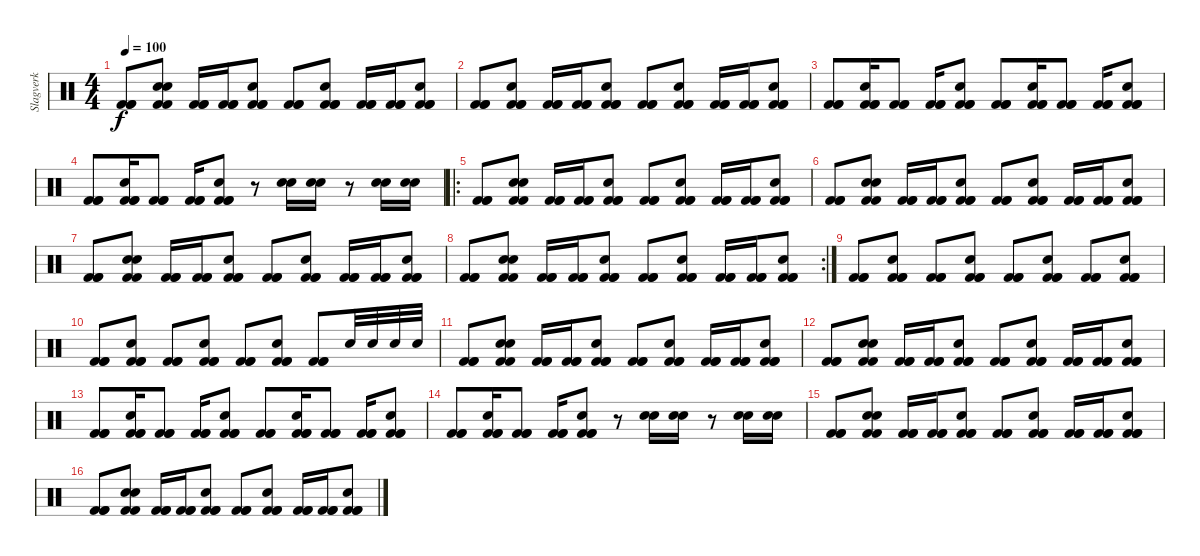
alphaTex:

\track ("Slagverk" "Slagverk") {instrument percussion}
\staff {score}
\articulation defaults
\ts (4 4)
\tempo 100
\clef neutral
\ks c
("Kick (hit) 2" "Kick (hit) 2" "Kick (hit) 2").8{dy f} ("Snare (hit) 2" "Kick (hit) 2" "Kick (hit) 2" "Snare (hit)").8 ("Kick (hit) 2" "Kick (hit) 2" "Kick (hit) 2").16 ("Kick (hit) 2" "Kick (hit) 2" "Kick (hit) 2").16 ("Snare (hit) 2" "Kick (hit) 2" "Kick (hit) 2" "Kick (hit) 2").8 ("Kick (hit) 2" "Kick (hit) 2" "Kick (hit) 2").8 ("Snare (hit) 2" "Kick (hit) 2" "Kick (hit) 2" "Kick (hit) 2").8 ("Kick (hit) 2" "Kick (hit) 2" "Kick (hit) 2").16 ("Kick (hit) 2" "Kick (hit) 2" "Kick (hit) 2").16 ("Snare (hit) 2" "Kick (hit) 2" "Kick (hit) 2" "Kick (hit) 2").8 |
("Kick (hit) 2" "Kick (hit) 2" "Kick (hit) 2").8 ("Snare (hit) 2" "Kick (hit) 2" "Kick (hit) 2" "Kick (hit) 2").8 ("Kick (hit) 2" "Kick (hit) 2" "Kick (hit) 2").16 ("Kick (hit) 2" "Kick (hit) 2" "Kick (hit) 2").16 ("Snare (hit) 2" "Kick (hit) 2" "Kick (hit) 2" "Kick (hit) 2").8 ("Kick (hit) 2" "Kick (hit) 2" "Kick (hit) 2").8 ("Snare (hit) 2" "Kick (hit) 2" "Kick (hit) 2" "Kick (hit) 2").8 ("Kick (hit) 2" "Kick (hit) 2" "Kick (hit) 2").16 ("Kick (hit) 2" "Kick (hit) 2" "Kick (hit) 2").16 ("Snare (hit) 2" "Kick (hit) 2" "Kick (hit) 2" "Kick (hit) 2").8 |
("Kick (hit) 2" "Kick (hit) 2" "Kick (hit) 2").8 ("Snare (hit) 2" "Kick (hit) 2" "Kick (hit) 2" "Kick (hit) 2").16 ("Kick (hit) 2" "Kick (hit) 2" "Kick (hit) 2").8 ("Kick (hit) 2" "Kick (hit) 2" "Kick (hit) 2").16 ("Snare (hit) 2" "Kick (hit) 2" "Kick (hit) 2" "Kick (hit) 2").8 ("Kick (hit) 2" "Kick (hit) 2" "Kick (hit) 2").8 ("Snare (hit) 2" "Kick (hit) 2" "Kick (hit) 2" "Kick (hit) 2").16 ("Kick (hit) 2" "Kick (hit) 2" "Kick (hit) 2").8 ("Kick (hit) 2" "Kick (hit) 2" "Kick (hit) 2").16 ("Snare (hit) 2" "Kick (hit) 2" "Kick (hit) 2" "Kick (hit) 2").8 |
("Kick (hit) 2" "Kick (hit) 2" "Kick (hit) 2").8 ("Snare (hit) 2" "Kick (hit) 2" "Kick (hit) 2" "Kick (hit) 2").16 ("Kick (hit) 2" "Kick (hit) 2" "Kick (hit) 2").8 ("Kick (hit) 2" "Kick (hit) 2" "Kick (hit) 2").16 ("Snare (hit) 2" "Kick (hit) 2" "Kick (hit) 2" "Kick (hit) 2").8 r.8 ("Hand Clap (hit)" "Hand Clap (hit)").16 ("Hand Clap (hit)" "Hand Clap (hit)").16 r.8 ("Hand Clap (hit)" "Hand Clap (hit)").16 ("Hand Clap (hit)" "Hand Clap (hit)").16 |
\ro
("Kick (hit) 2" "Kick (hit) 2" "Kick (hit) 2").8 ("Snare (hit) 2" "Kick (hit) 2" "Kick (hit) 2" "Snare (hit)").8 ("Kick (hit) 2" "Kick (hit) 2" "Kick (hit) 2").16 ("Kick (hit) 2" "Kick (hit) 2" "Kick (hit) 2").16 ("Snare (hit) 2" "Kick (hit) 2" "Kick (hit) 2" "Kick (hit) 2").8 ("Kick (hit) 2" "Kick (hit) 2" "Kick (hit) 2").8 ("Snare (hit) 2" "Kick (hit) 2" "Kick (hit) 2" "Kick (hit) 2").8 ("Kick (hit) 2" "Kick (hit) 2" "Kick (hit) 2").16 ("Kick (hit) 2" "Kick (hit) 2" "Kick (hit) 2").16 ("Snare (hit) 2" "Kick (hit) 2" "Kick (hit) 2" "Kick (hit) 2").8 |
("Kick (hit) 2" "Kick (hit) 2" "Kick (hit) 2").8 ("Snare (hit) 2" "Kick (hit) 2" "Kick (hit) 2" "Snare (hit)").8 ("Kick (hit) 2" "Kick (hit) 2" "Kick (hit) 2").16 ("Kick (hit) 2" "Kick (hit) 2" "Kick (hit) 2").16 ("Snare (hit) 2" "Kick (hit) 2" "Kick (hit) 2" "Kick (hit) 2").8 ("Kick (hit) 2" "Kick (hit) 2" "Kick (hit) 2").8 ("Snare (hit) 2" "Kick (hit) 2" "Kick (hit) 2" "Kick (hit) 2").8 ("Kick (hit) 2" "Kick (hit) 2" "Kick (hit) 2").16 ("Kick (hit) 2" "Kick (hit) 2" "Kick (hit) 2").16 ("Snare (hit) 2" "Kick (hit) 2" "Kick (hit) 2" "Kick (hit) 2").8 |
("Kick (hit) 2" "Kick (hit) 2" "Kick (hit) 2").8 ("Snare (hit) 2" "Kick (hit) 2" "Kick (hit) 2" "Snare (hit)").8 ("Kick (hit) 2" "Kick (hit) 2" "Kick (hit) 2").16 ("Kick (hit) 2" "Kick (hit) 2" "Kick (hit) 2").16 ("Snare (hit) 2" "Kick (hit) 2" "Kick (hit) 2" "Kick (hit) 2").8 ("Kick (hit) 2" "Kick (hit) 2" "Kick (hit) 2").8 ("Snare (hit) 2" "Kick (hit) 2" "Kick (hit) 2" "Kick (hit) 2").8 ("Kick (hit) 2" "Kick (hit) 2" "Kick (hit) 2").16 ("Kick (hit) 2" "Kick (hit) 2" "Kick (hit) 2").16 ("Snare (hit) 2" "Kick (hit) 2" "Kick (hit) 2" "Kick (hit) 2").8 |
\rc 2
("Kick (hit) 2" "Kick (hit) 2" "Kick (hit) 2").8 ("Snare (hit) 2" "Kick (hit) 2" "Kick (hit) 2" "Snare (hit)").8 ("Kick (hit) 2" "Kick (hit) 2" "Kick (hit) 2").16 ("Kick (hit) 2" "Kick (hit) 2" "Kick (hit) 2").16 ("Snare (hit) 2" "Kick (hit) 2" "Kick (hit) 2" "Kick (hit) 2").8 ("Kick (hit) 2" "Kick (hit) 2" "Kick (hit) 2").8 ("Snare (hit) 2" "Kick (hit) 2" "Kick (hit) 2" "Kick (hit) 2").8 ("Kick (hit) 2" "Kick (hit) 2" "Kick (hit) 2").16 ("Kick (hit) 2" "Kick (hit) 2" "Kick (hit) 2").16 ("Snare (hit) 2" "Kick (hit) 2" "Kick (hit) 2" "Kick (hit) 2").8 |
("Kick (hit) 2" "Kick (hit) 2" "Kick (hit) 2").8 ("Snare (hit) 2" "Kick (hit) 2" "Kick (hit) 2" "Kick (hit) 2").8 ("Kick (hit) 2" "Kick (hit) 2" "Kick (hit) 2").8 ("Snare (hit) 2" "Kick (hit) 2" "Kick (hit) 2" "Kick (hit) 2").8 ("Kick (hit) 2" "Kick (hit) 2" "Kick (hit) 2").8 ("Snare (hit) 2" "Kick (hit) 2" "Kick (hit) 2" "Kick (hit) 2").8 ("Kick (hit) 2" "Kick (hit) 2" "Kick (hit) 2").8 ("Snare (hit) 2" "Kick (hit) 2" "Kick (hit) 2" "Kick (hit) 2").8 |
("Kick (hit) 2" "Kick (hit) 2" "Kick (hit) 2").8 ("Snare (hit) 2" "Kick (hit) 2" "Kick (hit) 2" "Kick (hit) 2").8 ("Kick (hit) 2" "Kick (hit) 2" "Kick (hit) 2").8 ("Snare (hit) 2" "Kick (hit) 2" "Kick (hit) 2" "Kick (hit) 2").8 ("Kick (hit) 2" "Kick (hit) 2" "Kick (hit) 2").8 ("Snare (hit) 2" "Kick (hit) 2" "Kick (hit) 2" "Kick (hit) 2").8 ("Kick (hit) 2" "Kick (hit) 2" "Kick (hit) 2").8 "Snare (hit) 2".32 "Snare (hit) 2".32 "Snare (hit) 2".32 "Snare (hit) 2".32 |
("Kick (hit) 2" "Kick (hit) 2" "Kick (hit) 2").8 ("Snare (hit) 2" "Kick (hit) 2" "Kick (hit) 2" "Snare (hit)").8 ("Kick (hit) 2" "Kick (hit) 2" "Kick (hit) 2").16 ("Kick (hit) 2" "Kick (hit) 2" "Kick (hit) 2").16 ("Snare (hit) 2" "Kick (hit) 2" "Kick (hit) 2" "Kick (hit) 2").8 ("Kick (hit) 2" "Kick (hit) 2" "Kick (hit) 2").8 ("Snare (hit) 2" "Kick (hit) 2" "Kick (hit) 2" "Kick (hit) 2").8 ("Kick (hit) 2" "Kick (hit) 2" "Kick (hit) 2").16 ("Kick (hit) 2" "Kick (hit) 2" "Kick (hit) 2").16 ("Snare (hit) 2" "Kick (hit) 2" "Kick (hit) 2" "Kick (hit) 2").8 |
("Kick (hit) 2" "Kick (hit) 2" "Kick (hit) 2").8 ("Snare (hit) 2" "Kick (hit) 2" "Kick (hit) 2" "Snare (hit)").8 ("Kick (hit) 2" "Kick (hit) 2" "Kick (hit) 2").16 ("Kick (hit) 2" "Kick (hit) 2" "Kick (hit) 2").16 ("Snare (hit) 2" "Kick (hit) 2" "Kick (hit) 2" "Kick (hit) 2").8 ("Kick (hit) 2" "Kick (hit) 2" "Kick (hit) 2").8 ("Snare (hit) 2" "Kick (hit) 2" "Kick (hit) 2" "Kick (hit) 2").8 ("Kick (hit) 2" "Kick (hit) 2" "Kick (hit) 2").16 ("Kick (hit) 2" "Kick (hit) 2" "Kick (hit) 2").16 ("Snare (hit) 2" "Kick (hit) 2" "Kick (hit) 2" "Kick (hit) 2").8 |
("Kick (hit) 2" "Kick (hit) 2" "Kick (hit) 2").8 ("Snare (hit) 2" "Kick (hit) 2" "Kick (hit) 2" "Kick (hit) 2").16 ("Kick (hit) 2" "Kick (hit) 2" "Kick (hit) 2").8 ("Kick (hit) 2" "Kick (hit) 2" "Kick (hit) 2").16 ("Snare (hit) 2" "Kick (hit) 2" "Kick (hit) 2" "Kick (hit) 2").8 ("Kick (hit) 2" "Kick (hit) 2" "Kick (hit) 2").8 ("Snare (hit) 2" "Kick (hit) 2" "Kick (hit) 2" "Kick (hit) 2").16 ("Kick (hit) 2" "Kick (hit) 2" "Kick (hit) 2").8 ("Kick (hit) 2" "Kick (hit) 2" "Kick (hit) 2").16 ("Snare (hit) 2" "Kick (hit) 2" "Kick (hit) 2" "Kick (hit) 2").8 |
("Kick (hit) 2" "Kick (hit) 2" "Kick (hit) 2").8 ("Snare (hit) 2" "Kick (hit) 2" "Kick (hit) 2" "Kick (hit) 2").16 ("Kick (hit) 2" "Kick (hit) 2" "Kick (hit) 2").8 ("Kick (hit) 2" "Kick (hit) 2" "Kick (hit) 2").16 ("Snare (hit) 2" "Kick (hit) 2" "Kick (hit) 2" "Kick (hit) 2").8 r.8 ("Hand Clap (hit)" "Hand Clap (hit)").16 ("Hand Clap (hit)" "Hand Clap (hit)").16 r.8 ("Hand Clap (hit)" "Hand Clap (hit)").16 ("Hand Clap (hit)" "Hand Clap (hit)").16 |
("Kick (hit) 2" "Kick (hit) 2" "Kick (hit) 2").8 ("Snare (hit) 2" "Kick (hit) 2" "Kick (hit) 2" "Snare (hit)").8 ("Kick (hit) 2" "Kick (hit) 2" "Kick (hit) 2").16 ("Kick (hit) 2" "Kick (hit) 2" "Kick (hit) 2").16 ("Snare (hit) 2" "Kick (hit) 2" "Kick (hit) 2" "Kick (hit) 2").8 ("Kick (hit) 2" "Kick (hit) 2" "Kick (hit) 2").8 ("Snare (hit) 2" "Kick (hit) 2" "Kick (hit) 2" "Kick (hit) 2").8 ("Kick (hit) 2" "Kick (hit) 2" "Kick (hit) 2").16 ("Kick (hit) 2" "Kick (hit) 2" "Kick (hit) 2").16 ("Snare (hit) 2" "Kick (hit) 2" "Kick (hit) 2" "Kick (hit) 2").8 |
("Kick (hit) 2" "Kick (hit) 2" "Kick (hit) 2").8 ("Snare (hit) 2" "Kick (hit) 2" "Kick (hit) 2" "Snare (hit)").8 ("Kick (hit) 2" "Kick (hit) 2" "Kick (hit) 2").16 ("Kick (hit) 2" "Kick (hit) 2" "Kick (hit) 2").16 ("Snare (hit) 2" "Kick (hit) 2" "Kick (hit) 2" "Kick (hit) 2").8 ("Kick (hit) 2" "Kick (hit) 2" "Kick (hit) 2").8 ("Snare (hit) 2" "Kick (hit) 2" "Kick (hit) 2" "Kick (hit) 2").8 ("Kick (hit) 2" "Kick (hit) 2" "Kick (hit) 2").16 ("Kick (hit) 2" "Kick (hit) 2" "Kick (hit) 2").16 ("Snare (hit) 2" "Kick (hit) 2" "Kick (hit) 2" "Kick (hit) 2").8
